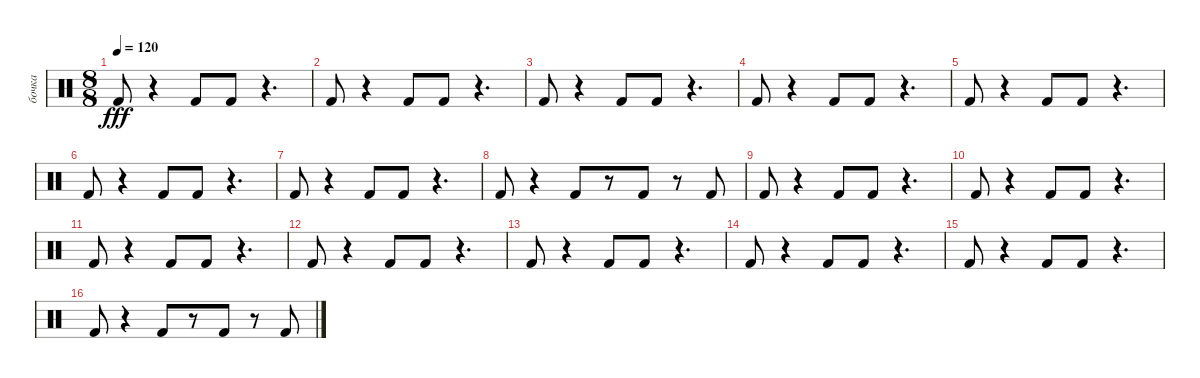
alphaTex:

\track ("бочка" "бочка") {instrument percussion}
\staff {score}
\articulation defaults
\ts (8 8)
\tempo 120
\clef neutral
\ks c "Kick (hit) 2".8{dy fff}
r.4 "Kick (hit) 2".8 "Kick (hit) 2".8 r.4{d} |
"Kick (hit) 2".8 r.4 "Kick (hit) 2".8 "Kick (hit) 2".8 r.4{d} |
"Kick (hit) 2".8 r.4 "Kick (hit) 2".8 "Kick (hit) 2".8 r.4{d} |
"Kick (hit) 2".8 r.4 "Kick (hit) 2".8 "Kick (hit) 2".8 r.4{d} |
"Kick (hit) 2".8 r.4 "Kick (hit) 2".8 "Kick (hit) 2".8 r.4{d} |
"Kick (hit) 2".8 r.4 "Kick (hit) 2".8 "Kick (hit) 2".8 r.4{d} |
"Kick (hit) 2".8 r.4 "Kick (hit) 2".8 "Kick (hit) 2".8 r.4{d} |
"Kick (hit) 2".8 r.4 "Kick (hit) 2".8 r.8 "Kick (hit) 2".8 r.8 "Kick (hit) 2".8 |
"Kick (hit) 2".8 r.4 "Kick (hit) 2".8 "Kick (hit) 2".8 r.4{d} |
"Kick (hit) 2".8 r.4 "Kick (hit) 2".8 "Kick (hit) 2".8 r.4{d} |
"Kick (hit) 2".8 r.4 "Kick (hit) 2".8 "Kick (hit) 2".8 r.4{d} |
"Kick (hit) 2".8 r.4 "Kick (hit) 2".8 "Kick (hit) 2".8 r.4{d} |
"Kick (hit) 2".8 r.4 "Kick (hit) 2".8 "Kick (hit) 2".8 r.4{d} |
"Kick (hit) 2".8 r.4 "Kick (hit) 2".8 "Kick (hit) 2".8 r.4{d} |
"Kick (hit) 2".8 r.4 "Kick (hit) 2".8 "Kick (hit) 2".8 r.4{d} |
"Kick (hit) 2".8 r.4 "Kick (hit) 2".8 r.8 "Kick (hit) 2".8 r.8 "Kick (hit) 2".8
